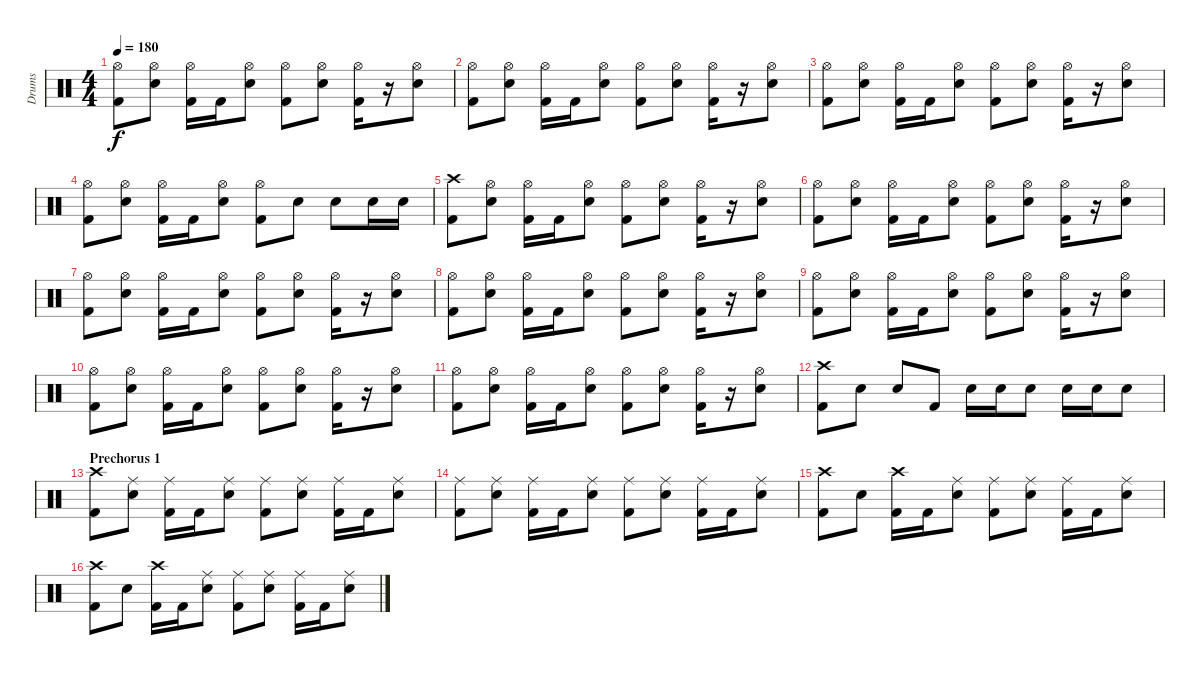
\track ("Drums" "Drums") {instrument percussion}
\staff {score}
\articulation defaults
\ts (4 4)
\tempo 180
\clef neutral
\ks c
("Hi-Hat (open)" "Kick (hit) 2").8{dy f} ("Hi-Hat (open)" "Snare (hit) 2").8 ("Hi-Hat (open)" "Kick (hit) 2").16 "Kick (hit) 2".16 ("Hi-Hat (open)" "Snare (hit) 2").8 ("Hi-Hat (open)" "Kick (hit) 2").8 ("Hi-Hat (open)" "Snare (hit) 2").8 ("Hi-Hat (open)" "Kick (hit) 2").16 r.16 ("Hi-Hat (open)" "Snare (hit) 2").8 |
("Hi-Hat (open)" "Kick (hit) 2").8 ("Hi-Hat (open)" "Snare (hit) 2").8 ("Hi-Hat (open)" "Kick (hit) 2").16 "Kick (hit) 2".16 ("Hi-Hat (open)" "Snare (hit) 2").8 ("Hi-Hat (open)" "Kick (hit) 2").8 ("Hi-Hat (open)" "Snare (hit) 2").8 ("Hi-Hat (open)" "Kick (hit) 2").16 r.16 ("Hi-Hat (open)" "Snare (hit) 2").8 |
("Hi-Hat (open)" "Kick (hit) 2").8 ("Hi-Hat (open)" "Snare (hit) 2").8 ("Hi-Hat (open)" "Kick (hit) 2").16 "Kick (hit) 2".16 ("Hi-Hat (open)" "Snare (hit) 2").8 ("Hi-Hat (open)" "Kick (hit) 2").8 ("Hi-Hat (open)" "Snare (hit) 2").8 ("Hi-Hat (open)" "Kick (hit) 2").16 r.16 ("Hi-Hat (open)" "Snare (hit) 2").8 |
("Hi-Hat (open)" "Kick (hit) 2").8 ("Hi-Hat (open)" "Snare (hit) 2").8 ("Hi-Hat (open)" "Kick (hit) 2").16 "Kick (hit) 2".16 ("Hi-Hat (open)" "Snare (hit) 2").8 ("Hi-Hat (open)" "Kick (hit) 2").8 "Snare (hit) 2".8 "Snare (hit) 2".8 "Snare (hit) 2".16 "Snare (hit) 2".16 |
("Crash high (hit)" "Kick (hit) 2").8 ("Hi-Hat (open)" "Snare (hit) 2").8 ("Hi-Hat (open)" "Kick (hit) 2").16 "Kick (hit) 2".16 ("Hi-Hat (open)" "Snare (hit) 2").8 ("Hi-Hat (open)" "Kick (hit) 2").8 ("Hi-Hat (open)" "Snare (hit) 2").8 ("Hi-Hat (open)" "Kick (hit) 2").16 r.16 ("Hi-Hat (open)" "Snare (hit) 2").8 |
("Hi-Hat (open)" "Kick (hit) 2").8 ("Hi-Hat (open)" "Snare (hit) 2").8 ("Hi-Hat (open)" "Kick (hit) 2").16 "Kick (hit) 2".16 ("Hi-Hat (open)" "Snare (hit) 2").8 ("Hi-Hat (open)" "Kick (hit) 2").8 ("Hi-Hat (open)" "Snare (hit) 2").8 ("Hi-Hat (open)" "Kick (hit) 2").16 r.16 ("Hi-Hat (open)" "Snare (hit) 2").8 |
("Hi-Hat (open)" "Kick (hit) 2").8 ("Hi-Hat (open)" "Snare (hit) 2").8 ("Hi-Hat (open)" "Kick (hit) 2").16 "Kick (hit) 2".16 ("Hi-Hat (open)" "Snare (hit) 2").8 ("Hi-Hat (open)" "Kick (hit) 2").8 ("Hi-Hat (open)" "Snare (hit) 2").8 ("Hi-Hat (open)" "Kick (hit) 2").16 r.16 ("Hi-Hat (open)" "Snare (hit) 2").8 |
("Hi-Hat (open)" "Kick (hit) 2").8 ("Hi-Hat (open)" "Snare (hit) 2").8 ("Hi-Hat (open)" "Kick (hit) 2").16 "Kick (hit) 2".16 ("Hi-Hat (open)" "Snare (hit) 2").8 ("Hi-Hat (open)" "Kick (hit) 2").8 ("Hi-Hat (open)" "Snare (hit) 2").8 ("Hi-Hat (open)" "Kick (hit) 2").16 r.16 ("Hi-Hat (open)" "Snare (hit) 2").8 |
("Hi-Hat (open)" "Kick (hit) 2").8 ("Hi-Hat (open)" "Snare (hit) 2").8 ("Hi-Hat (open)" "Kick (hit) 2").16 "Kick (hit) 2".16 ("Hi-Hat (open)" "Snare (hit) 2").8 ("Hi-Hat (open)" "Kick (hit) 2").8 ("Hi-Hat (open)" "Snare (hit) 2").8 ("Hi-Hat (open)" "Kick (hit) 2").16 r.16 ("Hi-Hat (open)" "Snare (hit) 2").8 |
("Hi-Hat (open)" "Kick (hit) 2").8 ("Hi-Hat (open)" "Snare (hit) 2").8 ("Hi-Hat (open)" "Kick (hit) 2").16 "Kick (hit) 2".16 ("Hi-Hat (open)" "Snare (hit) 2").8 ("Hi-Hat (open)" "Kick (hit) 2").8 ("Hi-Hat (open)" "Snare (hit) 2").8 ("Hi-Hat (open)" "Kick (hit) 2").16 r.16 ("Hi-Hat (open)" "Snare (hit) 2").8 |
("Hi-Hat (open)" "Kick (hit) 2").8 ("Hi-Hat (open)" "Snare (hit) 2").8 ("Hi-Hat (open)" "Kick (hit) 2").16 "Kick (hit) 2".16 ("Hi-Hat (open)" "Snare (hit) 2").8 ("Hi-Hat (open)" "Kick (hit) 2").8 ("Hi-Hat (open)" "Snare (hit) 2").8 ("Hi-Hat (open)" "Kick (hit) 2").16 r.16 ("Hi-Hat (open)" "Snare (hit) 2").8 |
("Crash high (hit)" "Kick (hit) 2").8 "Snare (hit) 2".8 "Snare (hit) 2".8 "Kick (hit) 2".8 "Snare (hit) 2".16 "Snare (hit) 2".16 "Snare (hit) 2".8 "Snare (hit) 2".16 "Snare (hit) 2".16 "Snare (hit) 2".8 |
\section ("" "Prechorus 1")
("Crash high (hit)" "Kick (hit) 2").8 ("Ride (middle)" "Snare (hit) 2").8 ("Ride (middle)" "Kick (hit) 2").16 "Kick (hit) 2".16 ("Ride (middle)" "Snare (hit) 2").8 ("Ride (middle)" "Kick (hit) 2").8 ("Ride (middle)" "Snare (hit) 2").8 ("Ride (middle)" "Kick (hit) 2").16 "Kick (hit) 2".16 ("Ride (middle)" "Snare (hit) 2").8 |
("Ride (middle)" "Kick (hit) 2").8 ("Ride (middle)" "Snare (hit) 2").8 ("Ride (middle)" "Kick (hit) 2").16 "Kick (hit) 2".16 ("Ride (middle)" "Snare (hit) 2").8 ("Ride (middle)" "Kick (hit) 2").8 ("Ride (middle)" "Snare (hit) 2").8 ("Ride (middle)" "Kick (hit) 2").16 "Kick (hit) 2".16 ("Ride (middle)" "Snare (hit) 2").8 |
("Crash high (hit)" "Kick (hit) 2").8 "Snare (hit) 2".8 ("Crash high (hit)" "Kick (hit) 2").16 "Kick (hit) 2".16 ("Ride (middle)" "Snare (hit) 2").8 ("Ride (middle)" "Kick (hit) 2").8 ("Ride (middle)" "Snare (hit) 2").8 ("Ride (middle)" "Kick (hit) 2").16 "Kick (hit) 2".16 ("Ride (middle)" "Snare (hit) 2").8 |
("Crash high (hit)" "Kick (hit) 2").8 "Snare (hit) 2".8 ("Crash high (hit)" "Kick (hit) 2").16 "Kick (hit) 2".16 ("Ride (middle)" "Snare (hit) 2").8 ("Ride (middle)" "Kick (hit) 2").8 ("Ride (middle)" "Snare (hit) 2").8 ("Ride (middle)" "Kick (hit) 2").16 "Kick (hit) 2".16 ("Ride (middle)" "Snare (hit) 2").8
